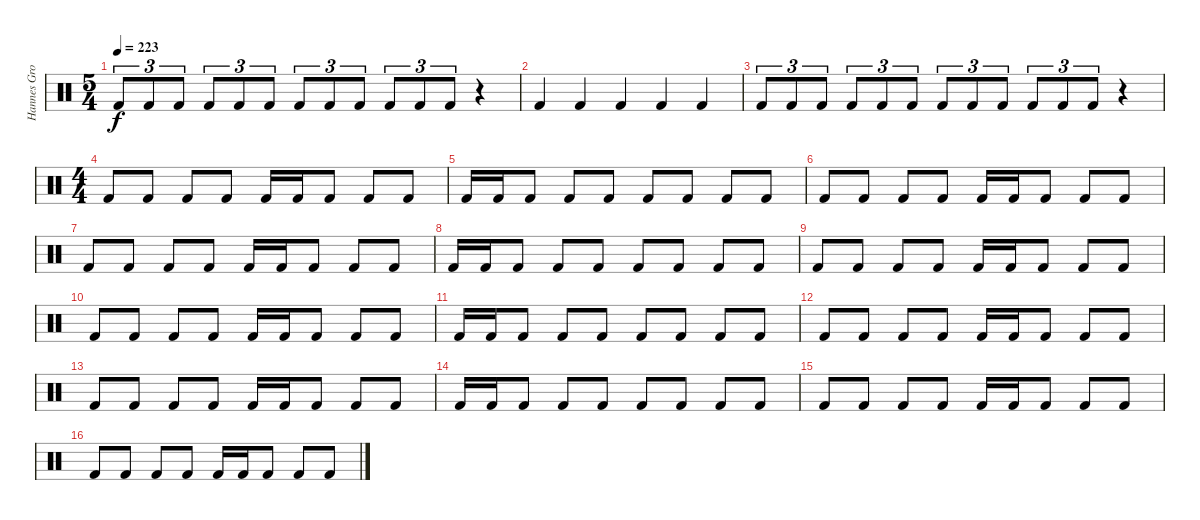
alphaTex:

\track ("Hannes Grossmann" "Hannes Gro") {instrument percussion}
\staff {score}
\articulation defaults
\ts (5 4)
\tempo 223
\clef neutral
\ks c "Kick (hit) 2".8{tu (3 2) dy f} "Kick (hit) 2".8{tu (3 2)} "Kick (hit) 2".8{tu (3 2)} "Kick (hit) 2".8{tu (3 2)} "Kick (hit) 2".8{tu (3 2)} "Kick (hit) 2".8{tu (3 2)} "Kick (hit) 2".8{tu (3 2)} "Kick (hit) 2".8{tu (3 2)} "Kick (hit) 2".8{tu (3 2)} "Kick (hit) 2".8{tu (3 2)} "Kick (hit) 2".8{tu (3 2)} "Kick (hit) 2".8{tu (3 2)}
r.4 |
"Kick (hit) 2".4 "Kick (hit) 2".4 "Kick (hit) 2".4 "Kick (hit) 2".4 "Kick (hit) 2".4 |
"Kick (hit) 2".8{tu (3 2)} "Kick (hit) 2".8{tu (3 2)} "Kick (hit) 2".8{tu (3 2)} "Kick (hit) 2".8{tu (3 2)} "Kick (hit) 2".8{tu (3 2)} "Kick (hit) 2".8{tu (3 2)} "Kick (hit) 2".8{tu (3 2)} "Kick (hit) 2".8{tu (3 2)} "Kick (hit) 2".8{tu (3 2)} "Kick (hit) 2".8{tu (3 2)} "Kick (hit) 2".8{tu (3 2)} "Kick (hit) 2".8{tu (3 2)} r.4 |
\ts (4 4)
"Kick (hit) 2".8 "Kick (hit) 2".8 "Kick (hit) 2".8 "Kick (hit) 2".8 "Kick (hit) 2".16 "Kick (hit) 2".16 "Kick (hit) 2".8 "Kick (hit) 2".8 "Kick (hit) 2".8 |
"Kick (hit) 2".16 "Kick (hit) 2".16 "Kick (hit) 2".8 "Kick (hit) 2".8 "Kick (hit) 2".8 "Kick (hit) 2".8 "Kick (hit) 2".8 "Kick (hit) 2".8 "Kick (hit) 2".8 |
"Kick (hit) 2".8 "Kick (hit) 2".8 "Kick (hit) 2".8 "Kick (hit) 2".8 "Kick (hit) 2".16 "Kick (hit) 2".16 "Kick (hit) 2".8 "Kick (hit) 2".8 "Kick (hit) 2".8 |
"Kick (hit) 2".8 "Kick (hit) 2".8 "Kick (hit) 2".8 "Kick (hit) 2".8 "Kick (hit) 2".16 "Kick (hit) 2".16 "Kick (hit) 2".8 "Kick (hit) 2".8 "Kick (hit) 2".8 |
"Kick (hit) 2".16 "Kick (hit) 2".16 "Kick (hit) 2".8 "Kick (hit) 2".8 "Kick (hit) 2".8 "Kick (hit) 2".8 "Kick (hit) 2".8 "Kick (hit) 2".8 "Kick (hit) 2".8 |
"Kick (hit) 2".8 "Kick (hit) 2".8 "Kick (hit) 2".8 "Kick (hit) 2".8 "Kick (hit) 2".16 "Kick (hit) 2".16 "Kick (hit) 2".8 "Kick (hit) 2".8 "Kick (hit) 2".8 |
"Kick (hit) 2".8 "Kick (hit) 2".8 "Kick (hit) 2".8 "Kick (hit) 2".8 "Kick (hit) 2".16 "Kick (hit) 2".16 "Kick (hit) 2".8 "Kick (hit) 2".8 "Kick (hit) 2".8 |
"Kick (hit) 2".16 "Kick (hit) 2".16 "Kick (hit) 2".8 "Kick (hit) 2".8 "Kick (hit) 2".8 "Kick (hit) 2".8 "Kick (hit) 2".8 "Kick (hit) 2".8 "Kick (hit) 2".8 |
"Kick (hit) 2".8 "Kick (hit) 2".8 "Kick (hit) 2".8 "Kick (hit) 2".8 "Kick (hit) 2".16 "Kick (hit) 2".16 "Kick (hit) 2".8 "Kick (hit) 2".8 "Kick (hit) 2".8 |
"Kick (hit) 2".8 "Kick (hit) 2".8 "Kick (hit) 2".8 "Kick (hit) 2".8 "Kick (hit) 2".16 "Kick (hit) 2".16 "Kick (hit) 2".8 "Kick (hit) 2".8 "Kick (hit) 2".8 |
"Kick (hit) 2".16 "Kick (hit) 2".16 "Kick (hit) 2".8 "Kick (hit) 2".8 "Kick (hit) 2".8 "Kick (hit) 2".8 "Kick (hit) 2".8 "Kick (hit) 2".8 "Kick (hit) 2".8 |
"Kick (hit) 2".8 "Kick (hit) 2".8 "Kick (hit) 2".8 "Kick (hit) 2".8 "Kick (hit) 2".16 "Kick (hit) 2".16 "Kick (hit) 2".8 "Kick (hit) 2".8 "Kick (hit) 2".8 |
"Kick (hit) 2".8 "Kick (hit) 2".8 "Kick (hit) 2".8 "Kick (hit) 2".8 "Kick (hit) 2".16 "Kick (hit) 2".16 "Kick (hit) 2".8 "Kick (hit) 2".8 "Kick (hit) 2".8
